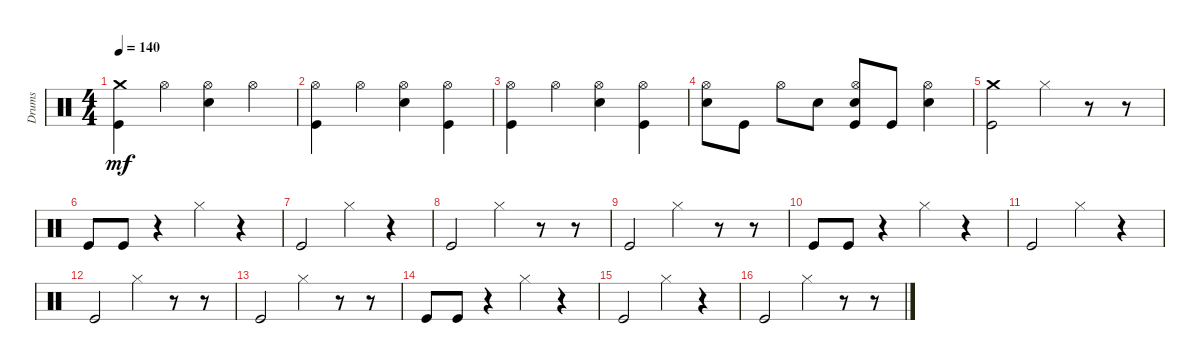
\track ("Drums" "Drums") {instrument percussion}
\staff {score}
\articulation defaults
\ts (4 4)
\tempo 140
\clef neutral
\ks c
("Crash medium (hit)" "Kick (hit)").4{dy mf} "Hi-Hat (open)".4 ("Hi-Hat (open)" "Snare (hit) 2").4 "Hi-Hat (open)".4 |
("Kick (hit)" "Hi-Hat (open)").4 "Hi-Hat (open)".4 ("Hi-Hat (open)" "Snare (hit) 2").4 ("Hi-Hat (open)" "Kick (hit)").4 |
("Hi-Hat (open)" "Kick (hit)").4 "Hi-Hat (open)".4 ("Hi-Hat (open)" "Snare (hit) 2").4 ("Hi-Hat (open)" "Kick (hit)").4 |
("Snare (hit) 2" "Hi-Hat (open)").8 "Kick (hit)".8 "Hi-Hat (open)".8 "Snare (hit) 2".8 ("Kick (hit)" "Hi-Hat (open)" "Snare (hit) 2").8 "Kick (hit)".8 ("Snare (hit) 2" "Hi-Hat (open)").4 |
("Crash medium (hit)" "Kick (hit)").2 "Hi-Hat (closed)".4 r.8 r.8 |
"Kick (hit)".8 "Kick (hit)".8 r.4 "Hi-Hat (closed)".4 r.4 |
"Kick (hit)".2 "Hi-Hat (closed)".4 r.4 |
"Kick (hit)".2 "Hi-Hat (closed)".4 r.8 r.8 |
"Kick (hit)".2 "Hi-Hat (closed)".4 r.8 r.8 |
"Kick (hit)".8 "Kick (hit)".8 r.4 "Hi-Hat (closed)".4 r.4 |
"Kick (hit)".2 "Hi-Hat (closed)".4 r.4 |
"Kick (hit)".2 "Hi-Hat (closed)".4 r.8 r.8 |
"Kick (hit)".2 "Hi-Hat (closed)".4 r.8 r.8 |
"Kick (hit)".8 "Kick (hit)".8 r.4 "Hi-Hat (closed)".4 r.4 |
"Kick (hit)".2 "Hi-Hat (closed)".4 r.4 |
"Kick (hit)".2 "Hi-Hat (closed)".4 r.8 r.8
